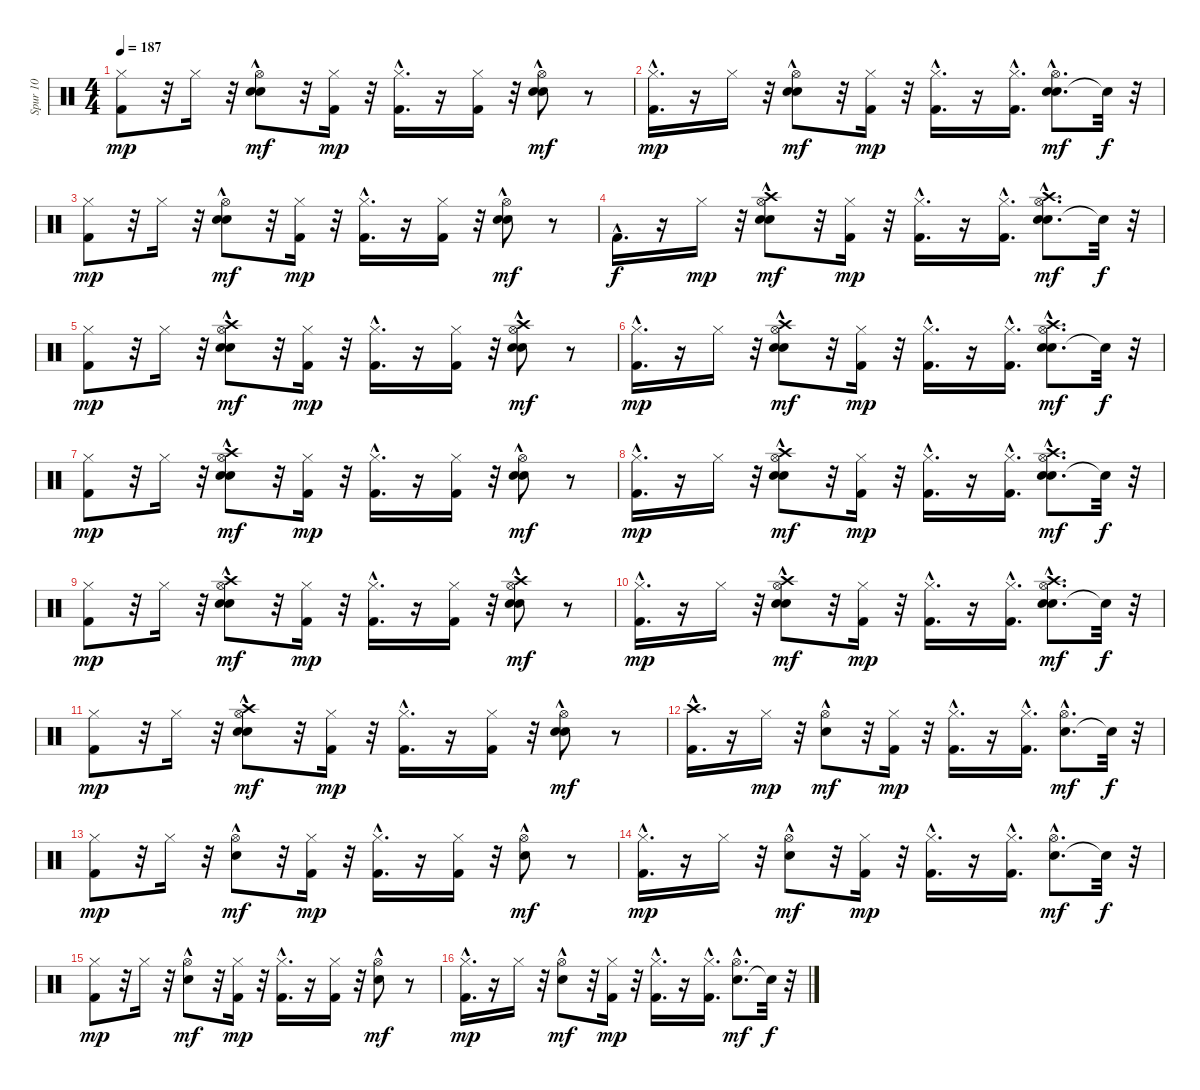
\track ("Spur 10" "Spur 10") {instrument percussion}
\staff {score}
\articulation defaults
\ts (4 4)
\tempo 187
\clef neutral
\ks c
("Kick (hit) 2" "Hi-Hat (closed)").8{dy mp} r.32 "Hi-Hat (closed)".16 r.32 ("Electric Snare (hit)"{hac} "Hi-Hat (open)" "Hand Clap (hit)").8{dy mf} r.32 ("Kick (hit) 2" "Hi-Hat (closed)").16{dy mp} r.32 ("Kick (hit) 2"{hac} "Hi-Hat (closed)").16{d} r.16 ("Kick (hit) 2" "Hi-Hat (closed)").16 r.32 ("Electric Snare (hit)"{hac} "Hi-Hat (open)" "Hand Clap (hit)"{hac}).8{dy mf} r.8 |
("Kick (hit) 2"{hac} "Hi-Hat (closed)").16{d dy mp} r.16 "Hi-Hat (closed)".16 r.32 ("Electric Snare (hit)"{hac} "Hi-Hat (open)" "Hand Clap (hit)").8{dy mf} r.32 ("Kick (hit) 2" "Hi-Hat (closed)").16{dy mp} r.32 ("Kick (hit) 2"{hac} "Hi-Hat (closed)").16{d} r.16 ("Kick (hit) 2"{hac} "Hi-Hat (closed)").16{d} ("Electric Snare (hit)" "Hi-Hat (open)"{hac} "Hand Clap (hit)").8{d dy mf} "Snare (hit)"{t}.32{dy f} r.32 |
("Kick (hit) 2" "Hi-Hat (closed)").8{dy mp} r.32 "Hi-Hat (closed)".16 r.32 ("Electric Snare (hit)"{hac} "Hi-Hat (open)" "Hand Clap (hit)").8{dy mf} r.32 ("Kick (hit) 2" "Hi-Hat (closed)").16{dy mp} r.32 ("Kick (hit) 2"{hac} "Hi-Hat (closed)").16{d} r.16 ("Kick (hit) 2" "Hi-Hat (closed)").16 r.32 ("Electric Snare (hit)"{hac} "Hi-Hat (open)" "Hand Clap (hit)"{hac}).8{dy mf} r.8 |
"Kick (hit) 2"{hac}.16{d dy f} r.16 "Hi-Hat (closed)".16{dy mp} r.32 ("Electric Snare (hit)"{hac} "Hi-Hat (open)" "Hand Clap (hit)" "Crash high (hit)").8{dy mf} r.32 ("Kick (hit) 2" "Hi-Hat (closed)").16{dy mp} r.32 ("Kick (hit) 2"{hac} "Hi-Hat (closed)").16{d} r.16 ("Kick (hit) 2"{hac} "Hi-Hat (closed)").16{d} ("Electric Snare (hit)" "Hi-Hat (open)"{hac} "Hand Clap (hit)"{hac} "Crash high (hit)"{hac}).8{d dy mf} "Snare (hit)"{t}.32{dy f} r.32 |
("Kick (hit) 2" "Hi-Hat (closed)").8{dy mp} r.32 "Hi-Hat (closed)".16 r.32 ("Electric Snare (hit)"{hac} "Hi-Hat (open)" "Hand Clap (hit)"{hac} "Crash high (hit)").8{dy mf} r.32 ("Kick (hit) 2" "Hi-Hat (closed)").16{dy mp} r.32 ("Kick (hit) 2"{hac} "Hi-Hat (closed)").16{d} r.16 ("Kick (hit) 2" "Hi-Hat (closed)").16 r.32 ("Electric Snare (hit)"{hac} "Hi-Hat (open)" "Hand Clap (hit)"{hac} "Crash high (hit)").8{dy mf} r.8 |
("Kick (hit) 2"{hac} "Hi-Hat (closed)").16{d dy mp} r.16 "Hi-Hat (closed)".16 r.32 ("Electric Snare (hit)"{hac} "Hi-Hat (open)" "Hand Clap (hit)"{hac} "Crash high (hit)").8{dy mf} r.32 ("Kick (hit) 2" "Hi-Hat (closed)").16{dy mp} r.32 ("Kick (hit) 2"{hac} "Hi-Hat (closed)").16{d} r.16 ("Kick (hit) 2"{hac} "Hi-Hat (closed)").16{d} ("Electric Snare (hit)" "Hi-Hat (open)"{hac} "Hand Clap (hit)"{hac} "Crash high (hit)").8{d dy mf} "Snare (hit)"{t}.32{dy f} r.32 |
("Kick (hit) 2" "Hi-Hat (closed)").8{dy mp} r.32 "Hi-Hat (closed)".16 r.32 ("Electric Snare (hit)"{hac} "Hi-Hat (open)" "Hand Clap (hit)" "Crash high (hit)").8{dy mf} r.32 ("Kick (hit) 2" "Hi-Hat (closed)").16{dy mp} r.32 ("Kick (hit) 2"{hac} "Hi-Hat (closed)").16{d} r.16 ("Kick (hit) 2" "Hi-Hat (closed)").16 r.32 ("Electric Snare (hit)"{hac} "Hi-Hat (open)" "Hand Clap (hit)").8{dy mf} r.8 |
("Kick (hit) 2"{hac} "Hi-Hat (closed)").16{d dy mp} r.16 "Hi-Hat (closed)".16 r.32 ("Electric Snare (hit)"{hac} "Hi-Hat (open)" "Hand Clap (hit)" "Crash high (hit)").8{dy mf} r.32 ("Kick (hit) 2" "Hi-Hat (closed)").16{dy mp} r.32 ("Kick (hit) 2"{hac} "Hi-Hat (closed)").16{d} r.16 ("Kick (hit) 2"{hac} "Hi-Hat (closed)").16{d} ("Electric Snare (hit)" "Hi-Hat (open)"{hac} "Hand Clap (hit)" "Crash high (hit)").8{d dy mf} "Snare (hit)"{t}.32{dy f} r.32 |
("Kick (hit) 2" "Hi-Hat (closed)").8{dy mp} r.32 "Hi-Hat (closed)".16 r.32 ("Electric Snare (hit)"{hac} "Hi-Hat (open)" "Hand Clap (hit)" "Crash high (hit)").8{dy mf} r.32 ("Kick (hit) 2" "Hi-Hat (closed)").16{dy mp} r.32 ("Kick (hit) 2"{hac} "Hi-Hat (closed)").16{d} r.16 ("Kick (hit) 2" "Hi-Hat (closed)").16 r.32 ("Electric Snare (hit)"{hac} "Hi-Hat (open)" "Hand Clap (hit)"{hac} "Crash high (hit)").8{dy mf} r.8 |
("Kick (hit) 2"{hac} "Hi-Hat (closed)").16{d dy mp} r.16 "Hi-Hat (closed)".16 r.32 ("Electric Snare (hit)"{hac} "Hi-Hat (open)" "Hand Clap (hit)" "Crash high (hit)").8{dy mf} r.32 ("Kick (hit) 2" "Hi-Hat (closed)").16{dy mp} r.32 ("Kick (hit) 2"{hac} "Hi-Hat (closed)").16{d} r.16 ("Kick (hit) 2"{hac} "Hi-Hat (closed)").16{d} ("Electric Snare (hit)" "Hi-Hat (open)"{hac} "Hand Clap (hit)" "Crash high (hit)").8{d dy mf} "Snare (hit)"{t}.32{dy f} r.32 |
("Kick (hit) 2" "Hi-Hat (closed)").8{dy mp} r.32 "Hi-Hat (closed)".16 r.32 ("Electric Snare (hit)"{hac} "Hi-Hat (open)" "Hand Clap (hit)" "Crash high (hit)").8{dy mf} r.32 ("Kick (hit) 2" "Hi-Hat (closed)").16{dy mp} r.32 ("Kick (hit) 2"{hac} "Hi-Hat (closed)").16{d} r.16 ("Kick (hit) 2" "Hi-Hat (closed)").16 r.32 ("Electric Snare (hit)"{hac} "Hi-Hat (open)" "Hand Clap (hit)"{hac}).8{dy mf} r.8 |
("Kick (hit) 2"{hac} "Crash high (hit)").16{d} r.16 "Hi-Hat (closed)".16{dy mp} r.32 ("Electric Snare (hit)"{hac} "Hi-Hat (open)").8{dy mf} r.32 ("Kick (hit) 2" "Hi-Hat (closed)").16{dy mp} r.32 ("Kick (hit) 2"{hac} "Hi-Hat (closed)").16{d} r.16 ("Kick (hit) 2"{hac} "Hi-Hat (closed)").16{d} ("Electric Snare (hit)" "Hi-Hat (open)"{hac}).8{d dy mf} "Snare (hit)"{t}.32{dy f} r.32 |
("Kick (hit) 2" "Hi-Hat (closed)").8{dy mp} r.32 "Hi-Hat (closed)".16 r.32 ("Electric Snare (hit)"{hac} "Hi-Hat (open)").8{dy mf} r.32 ("Kick (hit) 2" "Hi-Hat (closed)").16{dy mp} r.32 ("Kick (hit) 2"{hac} "Hi-Hat (closed)").16{d} r.16 ("Kick (hit) 2" "Hi-Hat (closed)").16 r.32 ("Electric Snare (hit)"{hac} "Hi-Hat (open)").8{dy mf} r.8 |
("Kick (hit) 2"{hac} "Hi-Hat (closed)").16{d dy mp} r.16 "Hi-Hat (closed)".16 r.32 ("Electric Snare (hit)"{hac} "Hi-Hat (open)").8{dy mf} r.32 ("Kick (hit) 2" "Hi-Hat (closed)").16{dy mp} r.32 ("Kick (hit) 2"{hac} "Hi-Hat (closed)").16{d} r.16 ("Kick (hit) 2"{hac} "Hi-Hat (closed)").16{d} ("Electric Snare (hit)" "Hi-Hat (open)"{hac}).8{d dy mf} "Snare (hit)"{t}.32{dy f} r.32 |
("Kick (hit) 2" "Hi-Hat (closed)").8{dy mp} r.32 "Hi-Hat (closed)".16 r.32 ("Electric Snare (hit)"{hac} "Hi-Hat (open)").8{dy mf} r.32 ("Kick (hit) 2" "Hi-Hat (closed)").16{dy mp} r.32 ("Kick (hit) 2"{hac} "Hi-Hat (closed)").16{d} r.16 ("Kick (hit) 2" "Hi-Hat (closed)").16 r.32 ("Electric Snare (hit)"{hac} "Hi-Hat (open)").8{dy mf} r.8 |
("Kick (hit) 2"{hac} "Hi-Hat (closed)").16{d dy mp} r.16 "Hi-Hat (closed)".16 r.32 ("Electric Snare (hit)"{hac} "Hi-Hat (open)").8{dy mf} r.32 ("Kick (hit) 2" "Hi-Hat (closed)").16{dy mp} r.32 ("Kick (hit) 2"{hac} "Hi-Hat (closed)").16{d} r.16 ("Kick (hit) 2"{hac} "Hi-Hat (closed)").16{d} ("Electric Snare (hit)" "Hi-Hat (open)"{hac}).8{d dy mf} "Snare (hit)"{t}.32{dy f} r.32
